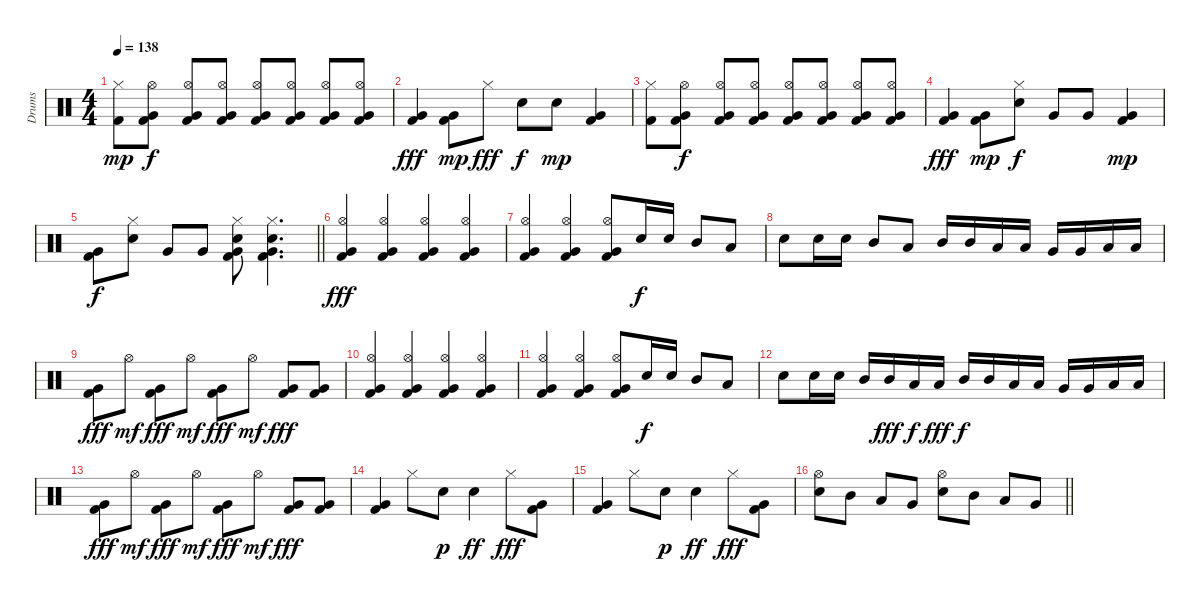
\track ("Drums" "Drums") {instrument percussion}
\staff {score}
\articulation defaults
\ts (4 4)
\tempo 138
\clef neutral
\ks c
("Hi-Hat (closed)" "Kick (hit) 2").8{dy mp} ("Hi-Hat (open)" "Very Low Tom (hit)" "Kick (hit) 2").8{dy f} ("Hi-Hat (open)" "Very Low Tom (hit)" "Kick (hit) 2").8 ("Hi-Hat (open)" "Very Low Tom (hit)" "Kick (hit) 2").8 ("Hi-Hat (open)" "Very Low Tom (hit)" "Kick (hit) 2").8 ("Hi-Hat (open)" "Very Low Tom (hit)" "Kick (hit) 2").8 ("Hi-Hat (open)" "Very Low Tom (hit)" "Kick (hit) 2").8 ("Hi-Hat (open)" "Very Low Tom (hit)" "Kick (hit) 2").8 |
("Very Low Tom (hit)" "Kick (hit) 2").4{dy fff} ("Very Low Tom (hit)" "Kick (hit) 2").8{dy mp} "Hi-Hat (closed)".8{dy fff} "Electric Snare (hit)".8{dy f} "Electric Snare (hit)".8{dy mp} ("Very Low Tom (hit)" "Kick (hit) 2").4 |
("Hi-Hat (closed)" "Kick (hit) 2").8 ("Hi-Hat (open)" "Very Low Tom (hit)" "Kick (hit) 2").8{dy f} ("Hi-Hat (open)" "Very Low Tom (hit)" "Kick (hit) 2").8 ("Hi-Hat (open)" "Very Low Tom (hit)" "Kick (hit) 2").8 ("Hi-Hat (open)" "Very Low Tom (hit)" "Kick (hit) 2").8 ("Hi-Hat (open)" "Very Low Tom (hit)" "Kick (hit) 2").8 ("Hi-Hat (open)" "Very Low Tom (hit)" "Kick (hit) 2").8 ("Hi-Hat (open)" "Very Low Tom (hit)" "Kick (hit) 2").8 |
("Very Low Tom (hit)" "Kick (hit) 2").4{dy fff} ("Very Low Tom (hit)" "Kick (hit) 2").8{dy mp} ("Hi-Hat (closed)" "Electric Snare (hit)").8{dy f} "Very Low Tom (hit)".8 "Very Low Tom (hit)".8 ("Very Low Tom (hit)" "Kick (hit) 2").4{dy mp} |
\barLineRight lightlight
("Very Low Tom (hit)" "Kick (hit) 2").8{dy f} ("Hi-Hat (closed)" "Electric Snare (hit)").8 "Very Low Tom (hit)".8 "Very Low Tom (hit)".8 ("Hi-Hat (closed)" "Electric Snare (hit)" "Very Low Tom (hit)" "Kick (hit) 2").8 ("Hi-Hat (closed)" "Electric Snare (hit)" "Very Low Tom (hit)" "Kick (hit) 2").4{d} |
("Hi-Hat (open)" "Very Low Tom (hit)" "Kick (hit) 2").4{dy fff} ("Hi-Hat (open)" "Very Low Tom (hit)" "Kick (hit) 2").4 ("Hi-Hat (open)" "Very Low Tom (hit)" "Kick (hit) 2").4 ("Hi-Hat (open)" "Very Low Tom (hit)" "Kick (hit) 2").4 |
("Hi-Hat (open)" "Very Low Tom (hit)" "Kick (hit) 2").4 ("Hi-Hat (open)" "Very Low Tom (hit)" "Kick (hit) 2").4 ("Hi-Hat (open)" "Very Low Tom (hit)" "Kick (hit) 2").8 "Electric Snare (hit)".16{dy f} "Electric Snare (hit)".16 "Mid Tom (hit)".8 "Low Tom (hit)".8 |
"Electric Snare (hit)".8 "Electric Snare (hit)".16 "Electric Snare (hit)".16 "Mid Tom (hit)".8 "Low Tom (hit)".8 "Mid Tom (hit)".16 "Mid Tom (hit)".16 "Low Tom (hit)".16 "Low Tom (hit)".16 "Very Low Tom (hit)".16 "Very Low Tom (hit)".16 "Low Floor Tom (hit)".16 "Low Floor Tom (hit)".16 |
("Very Low Tom (hit)" "Kick (hit) 2").8{dy fff} "Hi-Hat (open)".8{dy mf} ("Very Low Tom (hit)" "Kick (hit) 2").8{dy fff} "Hi-Hat (open)".8{dy mf} ("Very Low Tom (hit)" "Kick (hit) 2").8{dy fff} "Hi-Hat (open)".8{dy mf} ("Very Low Tom (hit)" "Kick (hit) 2").8{dy fff} ("Very Low Tom (hit)" "Kick (hit) 2").8 |
("Hi-Hat (open)" "Very Low Tom (hit)" "Kick (hit) 2").4 ("Hi-Hat (open)" "Very Low Tom (hit)" "Kick (hit) 2").4 ("Hi-Hat (open)" "Very Low Tom (hit)" "Kick (hit) 2").4 ("Hi-Hat (open)" "Very Low Tom (hit)" "Kick (hit) 2").4 |
("Hi-Hat (open)" "Very Low Tom (hit)" "Kick (hit) 2").4 ("Hi-Hat (open)" "Very Low Tom (hit)" "Kick (hit) 2").4 ("Hi-Hat (open)" "Very Low Tom (hit)" "Kick (hit) 2").8 "Electric Snare (hit)".16{dy f} "Electric Snare (hit)".16 "Mid Tom (hit)".8 "Low Tom (hit)".8 |
"Electric Snare (hit)".8 "Electric Snare (hit)".16 "Electric Snare (hit)".16 "Mid Tom (hit)".16 "Mid Tom (hit)".16{dy fff} "Low Tom (hit)".16{dy f} "Low Tom (hit)".16{dy fff} "Mid Tom (hit)".16{dy f} "Mid Tom (hit)".16 "Low Tom (hit)".16 "Low Tom (hit)".16 "Very Low Tom (hit)".16 "Very Low Tom (hit)".16 "Low Floor Tom (hit)".16 "Low Floor Tom (hit)".16 |
("Very Low Tom (hit)" "Kick (hit) 2").8{dy fff} "Hi-Hat (open)".8{dy mf} ("Very Low Tom (hit)" "Kick (hit) 2").8{dy fff} "Hi-Hat (open)".8{dy mf} ("Very Low Tom (hit)" "Kick (hit) 2").8{dy fff} "Hi-Hat (open)".8{dy mf} ("Very Low Tom (hit)" "Kick (hit) 2").8{dy fff} ("Very Low Tom (hit)" "Kick (hit) 2").8 |
("Very Low Tom (hit)" "Kick (hit) 2").4 "Hi-Hat (closed)".8 "Electric Snare (hit)".8{dy p} "Electric Snare (hit)".4{dy ff} "Hi-Hat (closed)".8{dy fff} ("Very Low Tom (hit)" "Kick (hit) 2").8 |
("Very Low Tom (hit)" "Kick (hit) 2").4 "Hi-Hat (closed)".8 "Electric Snare (hit)".8{dy p} "Electric Snare (hit)".4{dy ff} "Hi-Hat (closed)".8{dy fff} ("Very Low Tom (hit)" "Kick (hit) 2").8 |
\barLineRight lightlight
("Hi-Hat (open)" "Electric Snare (hit)").8 "Mid Tom (hit)".8 "Low Tom (hit)".8 "Very Low Tom (hit)".8 ("Hi-Hat (open)" "Electric Snare (hit)").8 "Mid Tom (hit)".8 "Low Tom (hit)".8 "Very Low Tom (hit)".8
